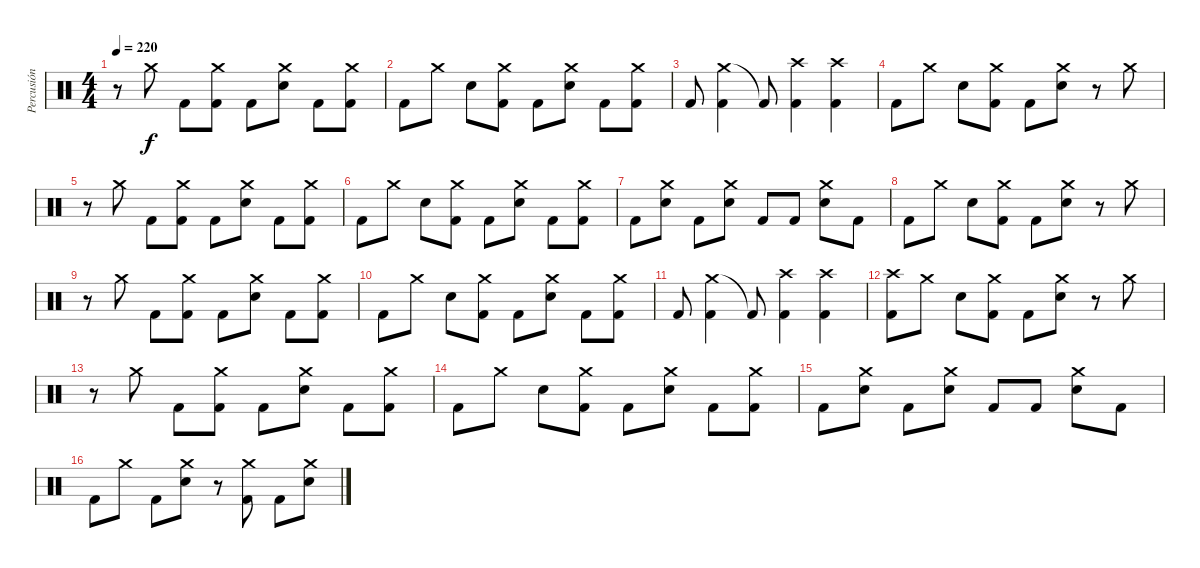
\track ("Percusión" "Percusión") {instrument percussion}
\staff {score}
\articulation defaults
\ts (4 4)
\tempo 220
\clef neutral
\ks c
r.8{dy f} "Crash medium (hit)".8 "Kick (hit) 2".8 ("Crash medium (hit)" "Kick (hit) 2").8 "Kick (hit) 2".8 ("Crash medium (hit)" "Electric Snare (hit)").8 "Kick (hit) 2".8 ("Crash medium (hit)" "Kick (hit) 2").8 |
"Kick (hit) 2".8 "Crash medium (hit)".8 "Electric Snare (hit)".8 ("Crash medium (hit)" "Kick (hit) 2").8 "Kick (hit) 2".8 ("Crash medium (hit)" "Electric Snare (hit)").8 "Kick (hit) 2".8 ("Crash medium (hit)" "Kick (hit) 2").8 |
"Kick (hit) 2".8 ("Crash medium (hit)" "Kick (hit) 2").4 "Kick (hit) 2"{t}.8 ("Crash high (hit)" "Kick (hit) 2").4 ("Crash high (hit)" "Kick (hit) 2").4 |
"Kick (hit) 2".8 "Crash medium (hit)".8 "Electric Snare (hit)".8 ("Crash medium (hit)" "Kick (hit) 2").8 "Kick (hit) 2".8 ("Crash medium (hit)" "Electric Snare (hit)").8 r.8 "Crash medium (hit)".8 |
r.8 "Crash medium (hit)".8 "Kick (hit) 2".8 ("Crash medium (hit)" "Kick (hit) 2").8 "Kick (hit) 2".8 ("Crash medium (hit)" "Electric Snare (hit)").8 "Kick (hit) 2".8 ("Crash medium (hit)" "Kick (hit) 2").8 |
"Kick (hit) 2".8 "Crash medium (hit)".8 "Electric Snare (hit)".8 ("Crash medium (hit)" "Kick (hit) 2").8 "Kick (hit) 2".8 ("Crash medium (hit)" "Electric Snare (hit)").8 "Kick (hit) 2".8 ("Crash medium (hit)" "Kick (hit) 2").8 |
"Kick (hit) 2".8 ("Crash medium (hit)" "Electric Snare (hit)").8 "Kick (hit) 2".8 ("Crash medium (hit)" "Electric Snare (hit)").8 "Kick (hit) 2".8 "Kick (hit) 2".8 ("Crash medium (hit)" "Electric Snare (hit)").8 "Kick (hit) 2".8 |
"Kick (hit) 2".8 "Crash medium (hit)".8 "Electric Snare (hit)".8 ("Crash medium (hit)" "Kick (hit) 2").8 "Kick (hit) 2".8 ("Crash medium (hit)" "Electric Snare (hit)").8 r.8 "Crash medium (hit)".8 |
r.8 "Crash medium (hit)".8 "Kick (hit) 2".8 ("Crash medium (hit)" "Kick (hit) 2").8 "Kick (hit) 2".8 ("Crash medium (hit)" "Electric Snare (hit)").8 "Kick (hit) 2".8 ("Crash medium (hit)" "Kick (hit) 2").8 |
"Kick (hit) 2".8 "Crash medium (hit)".8 "Electric Snare (hit)".8 ("Crash medium (hit)" "Kick (hit) 2").8 "Kick (hit) 2".8 ("Crash medium (hit)" "Electric Snare (hit)").8 "Kick (hit) 2".8 ("Crash medium (hit)" "Kick (hit) 2").8 |
"Kick (hit) 2".8 ("Crash medium (hit)" "Kick (hit) 2").4 "Kick (hit) 2"{t}.8 ("Crash high (hit)" "Kick (hit) 2").4 ("Crash high (hit)" "Kick (hit) 2").4 |
("Crash high (hit)" "Kick (hit) 2").8 "Crash medium (hit)".8 "Electric Snare (hit)".8 ("Crash medium (hit)" "Kick (hit) 2").8 "Kick (hit) 2".8 ("Crash medium (hit)" "Electric Snare (hit)").8 r.8 "Crash medium (hit)".8 |
r.8 "Crash medium (hit)".8 "Kick (hit) 2".8 ("Crash medium (hit)" "Kick (hit) 2").8 "Kick (hit) 2".8 ("Crash medium (hit)" "Electric Snare (hit)").8 "Kick (hit) 2".8 ("Crash medium (hit)" "Kick (hit) 2").8 |
"Kick (hit) 2".8 "Crash medium (hit)".8 "Electric Snare (hit)".8 ("Crash medium (hit)" "Kick (hit) 2").8 "Kick (hit) 2".8 ("Crash medium (hit)" "Electric Snare (hit)").8 "Kick (hit) 2".8 ("Crash medium (hit)" "Kick (hit) 2").8 |
"Kick (hit) 2".8 ("Crash medium (hit)" "Electric Snare (hit)").8 "Kick (hit) 2".8 ("Crash medium (hit)" "Electric Snare (hit)").8 "Kick (hit) 2".8 "Kick (hit) 2".8 ("Crash medium (hit)" "Electric Snare (hit)").8 "Kick (hit) 2".8 |
"Kick (hit) 2".8 "Crash medium (hit)".8 "Kick (hit) 2".8 ("Crash medium (hit)" "Electric Snare (hit)").8 r.8 ("Crash medium (hit)" "Kick (hit) 2").8 "Kick (hit) 2".8 ("Crash medium (hit)" "Electric Snare (hit)").8
